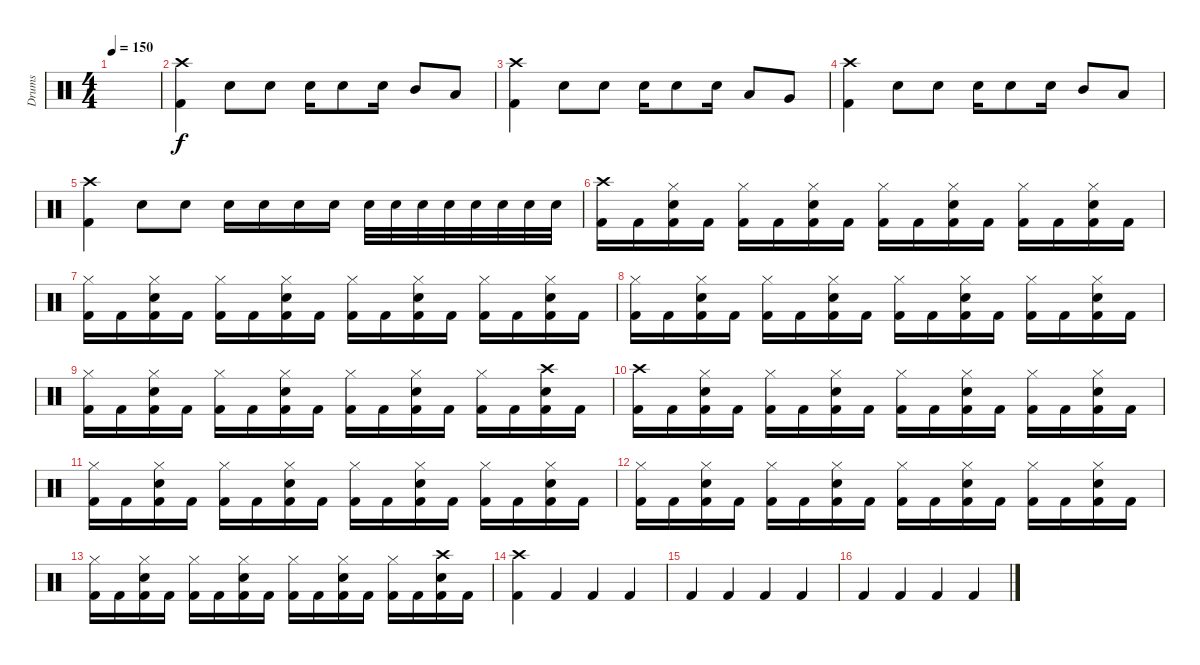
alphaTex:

\track ("Drums" "Drums") {instrument percussion}
\staff {score}
\articulation defaults
\ts (4 4)
\tempo 150
\clef neutral
\ks c
|
("Crash high (hit)" "Kick (hit) 2").4 "Electric Snare (hit)".8 "Electric Snare (hit)".8 "Electric Snare (hit)".16 "Electric Snare (hit)".8 "Electric Snare (hit)".16 "Mid Tom (hit)".8 "Low Tom (hit)".8 |
("Crash high (hit)" "Kick (hit) 2").4 "Electric Snare (hit)".8 "Electric Snare (hit)".8 "Electric Snare (hit)".16 "Electric Snare (hit)".8 "Electric Snare (hit)".16 "Low Tom (hit)".8 "Very Low Tom (hit)".8 |
("Crash high (hit)" "Kick (hit) 2").4 "Electric Snare (hit)".8 "Electric Snare (hit)".8 "Electric Snare (hit)".16 "Electric Snare (hit)".8 "Electric Snare (hit)".16 "Mid Tom (hit)".8 "Low Tom (hit)".8 |
("Crash high (hit)" "Kick (hit) 2").4 "Electric Snare (hit)".8 "Electric Snare (hit)".8 "Electric Snare (hit)".16 "Electric Snare (hit)".16 "Electric Snare (hit)".16 "Electric Snare (hit)".16 "Electric Snare (hit)".32 "Electric Snare (hit)".32 "Electric Snare (hit)".32 "Electric Snare (hit)".32 "Electric Snare (hit)".32 "Electric Snare (hit)".32 "Electric Snare (hit)".32 "Electric Snare (hit)".32 |
("Crash high (hit)" "Kick (hit) 2").16 "Kick (hit) 2".16 ("Hi-Hat (closed)" "Electric Snare (hit)" "Kick (hit) 2").16 "Kick (hit) 2".16 ("Hi-Hat (closed)" "Kick (hit) 2").16 "Kick (hit) 2".16 ("Hi-Hat (closed)" "Electric Snare (hit)" "Kick (hit) 2").16 "Kick (hit) 2".16 ("Hi-Hat (closed)" "Kick (hit) 2").16 "Kick (hit) 2".16 ("Hi-Hat (closed)" "Electric Snare (hit)" "Kick (hit) 2").16 "Kick (hit) 2".16 ("Hi-Hat (closed)" "Kick (hit) 2").16 "Kick (hit) 2".16 ("Hi-Hat (closed)" "Electric Snare (hit)" "Kick (hit) 2").16 "Kick (hit) 2".16 |
("Hi-Hat (closed)" "Kick (hit) 2").16 "Kick (hit) 2".16 ("Hi-Hat (closed)" "Electric Snare (hit)" "Kick (hit) 2").16 "Kick (hit) 2".16 ("Hi-Hat (closed)" "Kick (hit) 2").16 "Kick (hit) 2".16 ("Hi-Hat (closed)" "Electric Snare (hit)" "Kick (hit) 2").16 "Kick (hit) 2".16 ("Hi-Hat (closed)" "Kick (hit) 2").16 "Kick (hit) 2".16 ("Hi-Hat (closed)" "Electric Snare (hit)" "Kick (hit) 2").16 "Kick (hit) 2".16 ("Hi-Hat (closed)" "Kick (hit) 2").16 "Kick (hit) 2".16 ("Hi-Hat (closed)" "Electric Snare (hit)" "Kick (hit) 2").16 "Kick (hit) 2".16 |
("Hi-Hat (closed)" "Kick (hit) 2").16 "Kick (hit) 2".16 ("Hi-Hat (closed)" "Electric Snare (hit)" "Kick (hit) 2").16 "Kick (hit) 2".16 ("Hi-Hat (closed)" "Kick (hit) 2").16 "Kick (hit) 2".16 ("Hi-Hat (closed)" "Electric Snare (hit)" "Kick (hit) 2").16 "Kick (hit) 2".16 ("Hi-Hat (closed)" "Kick (hit) 2").16 "Kick (hit) 2".16 ("Hi-Hat (closed)" "Electric Snare (hit)" "Kick (hit) 2").16 "Kick (hit) 2".16 ("Hi-Hat (closed)" "Kick (hit) 2").16 "Kick (hit) 2".16 ("Hi-Hat (closed)" "Electric Snare (hit)" "Kick (hit) 2").16 "Kick (hit) 2".16 |
("Hi-Hat (closed)" "Kick (hit) 2").16 "Kick (hit) 2".16 ("Hi-Hat (closed)" "Electric Snare (hit)" "Kick (hit) 2").16 "Kick (hit) 2".16 ("Hi-Hat (closed)" "Kick (hit) 2").16 "Kick (hit) 2".16 ("Hi-Hat (closed)" "Electric Snare (hit)" "Kick (hit) 2").16 "Kick (hit) 2".16 ("Hi-Hat (closed)" "Kick (hit) 2").16 "Kick (hit) 2".16 ("Hi-Hat (closed)" "Electric Snare (hit)" "Kick (hit) 2").16 "Kick (hit) 2".16 ("Hi-Hat (closed)" "Kick (hit) 2").16 "Kick (hit) 2".16 ("Crash high (hit)" "Electric Snare (hit)" "Kick (hit) 2").16 "Kick (hit) 2".16 |
("Crash high (hit)" "Kick (hit) 2").16 "Kick (hit) 2".16 ("Hi-Hat (closed)" "Electric Snare (hit)" "Kick (hit) 2").16 "Kick (hit) 2".16 ("Hi-Hat (closed)" "Kick (hit) 2").16 "Kick (hit) 2".16 ("Hi-Hat (closed)" "Electric Snare (hit)" "Kick (hit) 2").16 "Kick (hit) 2".16 ("Hi-Hat (closed)" "Kick (hit) 2").16 "Kick (hit) 2".16 ("Hi-Hat (closed)" "Electric Snare (hit)" "Kick (hit) 2").16 "Kick (hit) 2".16 ("Hi-Hat (closed)" "Kick (hit) 2").16 "Kick (hit) 2".16 ("Hi-Hat (closed)" "Electric Snare (hit)" "Kick (hit) 2").16 "Kick (hit) 2".16 |
("Hi-Hat (closed)" "Kick (hit) 2").16 "Kick (hit) 2".16 ("Hi-Hat (closed)" "Electric Snare (hit)" "Kick (hit) 2").16 "Kick (hit) 2".16 ("Hi-Hat (closed)" "Kick (hit) 2").16 "Kick (hit) 2".16 ("Hi-Hat (closed)" "Electric Snare (hit)" "Kick (hit) 2").16 "Kick (hit) 2".16 ("Hi-Hat (closed)" "Kick (hit) 2").16 "Kick (hit) 2".16 ("Hi-Hat (closed)" "Electric Snare (hit)" "Kick (hit) 2").16 "Kick (hit) 2".16 ("Hi-Hat (closed)" "Kick (hit) 2").16 "Kick (hit) 2".16 ("Hi-Hat (closed)" "Electric Snare (hit)" "Kick (hit) 2").16 "Kick (hit) 2".16 |
("Hi-Hat (closed)" "Kick (hit) 2").16 "Kick (hit) 2".16 ("Hi-Hat (closed)" "Electric Snare (hit)" "Kick (hit) 2").16 "Kick (hit) 2".16 ("Hi-Hat (closed)" "Kick (hit) 2").16 "Kick (hit) 2".16 ("Hi-Hat (closed)" "Electric Snare (hit)" "Kick (hit) 2").16 "Kick (hit) 2".16 ("Hi-Hat (closed)" "Kick (hit) 2").16 "Kick (hit) 2".16 ("Hi-Hat (closed)" "Electric Snare (hit)" "Kick (hit) 2").16 "Kick (hit) 2".16 ("Hi-Hat (closed)" "Kick (hit) 2").16 "Kick (hit) 2".16 ("Hi-Hat (closed)" "Electric Snare (hit)" "Kick (hit) 2").16 "Kick (hit) 2".16 |
("Hi-Hat (closed)" "Kick (hit) 2").16 "Kick (hit) 2".16 ("Hi-Hat (closed)" "Electric Snare (hit)" "Kick (hit) 2").16 "Kick (hit) 2".16 ("Hi-Hat (closed)" "Kick (hit) 2").16 "Kick (hit) 2".16 ("Hi-Hat (closed)" "Electric Snare (hit)" "Kick (hit) 2").16 "Kick (hit) 2".16 ("Hi-Hat (closed)" "Kick (hit) 2").16 "Kick (hit) 2".16 ("Hi-Hat (closed)" "Electric Snare (hit)" "Kick (hit) 2").16 "Kick (hit) 2".16 ("Hi-Hat (closed)" "Kick (hit) 2").16 "Kick (hit) 2".16 ("Crash high (hit)" "Electric Snare (hit)" "Kick (hit) 2").16 "Kick (hit) 2".16 |
("Crash high (hit)" "Kick (hit) 2").4 "Kick (hit) 2".4 "Kick (hit) 2".4 "Kick (hit) 2".4 |
"Kick (hit) 2".4 "Kick (hit) 2".4 "Kick (hit) 2".4 "Kick (hit) 2".4 |
"Kick (hit) 2".4 "Kick (hit) 2".4 "Kick (hit) 2".4 "Kick (hit) 2".4
